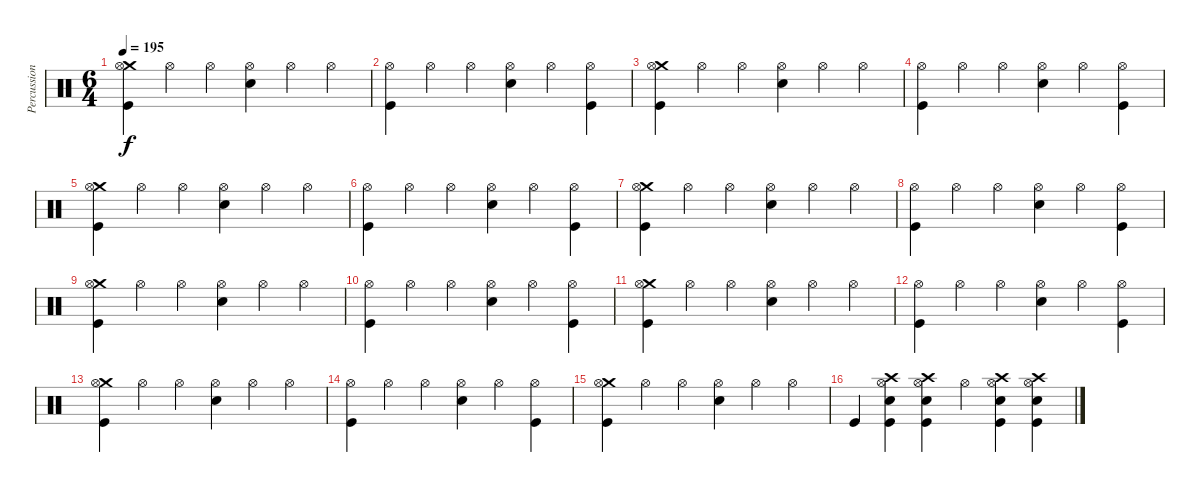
\track ("Percussion" "Percussion") {instrument percussion}
\staff {score}
\articulation defaults
\ts (6 4)
\tempo 195
\clef neutral
\ks c
("Crash medium (hit)" "Hi-Hat (open)" "Kick (hit)").4{dy f} "Hi-Hat (open)".4 "Hi-Hat (open)".4 ("Hi-Hat (open)" "Electric Snare (hit)").4 "Hi-Hat (open)".4 "Hi-Hat (open)".4 |
("Hi-Hat (open)" "Kick (hit)").4 "Hi-Hat (open)".4 "Hi-Hat (open)".4 ("Hi-Hat (open)" "Electric Snare (hit)").4 "Hi-Hat (open)".4 ("Hi-Hat (open)" "Kick (hit)").4 |
("Crash medium (hit)" "Hi-Hat (open)" "Kick (hit)").4 "Hi-Hat (open)".4 "Hi-Hat (open)".4 ("Hi-Hat (open)" "Electric Snare (hit)").4 "Hi-Hat (open)".4 "Hi-Hat (open)".4 |
("Hi-Hat (open)" "Kick (hit)").4 "Hi-Hat (open)".4 "Hi-Hat (open)".4 ("Hi-Hat (open)" "Electric Snare (hit)").4 "Hi-Hat (open)".4 ("Hi-Hat (open)" "Kick (hit)").4 |
("Crash medium (hit)" "Hi-Hat (open)" "Kick (hit)").4 "Hi-Hat (open)".4 "Hi-Hat (open)".4 ("Hi-Hat (open)" "Electric Snare (hit)").4 "Hi-Hat (open)".4 "Hi-Hat (open)".4 |
("Hi-Hat (open)" "Kick (hit)").4 "Hi-Hat (open)".4 "Hi-Hat (open)".4 ("Hi-Hat (open)" "Electric Snare (hit)").4 "Hi-Hat (open)".4 ("Hi-Hat (open)" "Kick (hit)").4 |
("Crash medium (hit)" "Hi-Hat (open)" "Kick (hit)").4 "Hi-Hat (open)".4 "Hi-Hat (open)".4 ("Hi-Hat (open)" "Electric Snare (hit)").4 "Hi-Hat (open)".4 "Hi-Hat (open)".4 |
("Hi-Hat (open)" "Kick (hit)").4 "Hi-Hat (open)".4 "Hi-Hat (open)".4 ("Hi-Hat (open)" "Electric Snare (hit)").4 "Hi-Hat (open)".4 ("Hi-Hat (open)" "Kick (hit)").4 |
("Crash medium (hit)" "Hi-Hat (open)" "Kick (hit)").4 "Hi-Hat (open)".4 "Hi-Hat (open)".4 ("Hi-Hat (open)" "Electric Snare (hit)").4 "Hi-Hat (open)".4 "Hi-Hat (open)".4 |
("Hi-Hat (open)" "Kick (hit)").4 "Hi-Hat (open)".4 "Hi-Hat (open)".4 ("Hi-Hat (open)" "Electric Snare (hit)").4 "Hi-Hat (open)".4 ("Hi-Hat (open)" "Kick (hit)").4 |
("Crash medium (hit)" "Hi-Hat (open)" "Kick (hit)").4 "Hi-Hat (open)".4 "Hi-Hat (open)".4 ("Hi-Hat (open)" "Electric Snare (hit)").4 "Hi-Hat (open)".4 "Hi-Hat (open)".4 |
("Hi-Hat (open)" "Kick (hit)").4 "Hi-Hat (open)".4 "Hi-Hat (open)".4 ("Hi-Hat (open)" "Electric Snare (hit)").4 "Hi-Hat (open)".4 ("Hi-Hat (open)" "Kick (hit)").4 |
("Crash medium (hit)" "Hi-Hat (open)" "Kick (hit)").4 "Hi-Hat (open)".4 "Hi-Hat (open)".4 ("Hi-Hat (open)" "Electric Snare (hit)").4 "Hi-Hat (open)".4 "Hi-Hat (open)".4 |
("Hi-Hat (open)" "Kick (hit)").4 "Hi-Hat (open)".4 "Hi-Hat (open)".4 ("Hi-Hat (open)" "Electric Snare (hit)").4 "Hi-Hat (open)".4 ("Hi-Hat (open)" "Kick (hit)").4 |
("Crash medium (hit)" "Hi-Hat (open)" "Kick (hit)").4 "Hi-Hat (open)".4 "Hi-Hat (open)".4 ("Hi-Hat (open)" "Electric Snare (hit)").4 "Hi-Hat (open)".4 "Hi-Hat (open)".4 |
"Kick (hit)".4 ("Crash high (hit)" "Hi-Hat (open)" "Electric Snare (hit)" "Kick (hit)").4 ("Crash high (hit)" "Hi-Hat (open)" "Electric Snare (hit)" "Kick (hit)").4 "Hi-Hat (open)".4 ("Crash high (hit)" "Hi-Hat (open)" "Electric Snare (hit)" "Kick (hit)").4 ("Crash high (hit)" "Hi-Hat (open)" "Electric Snare (hit)" "Kick (hit)").4
